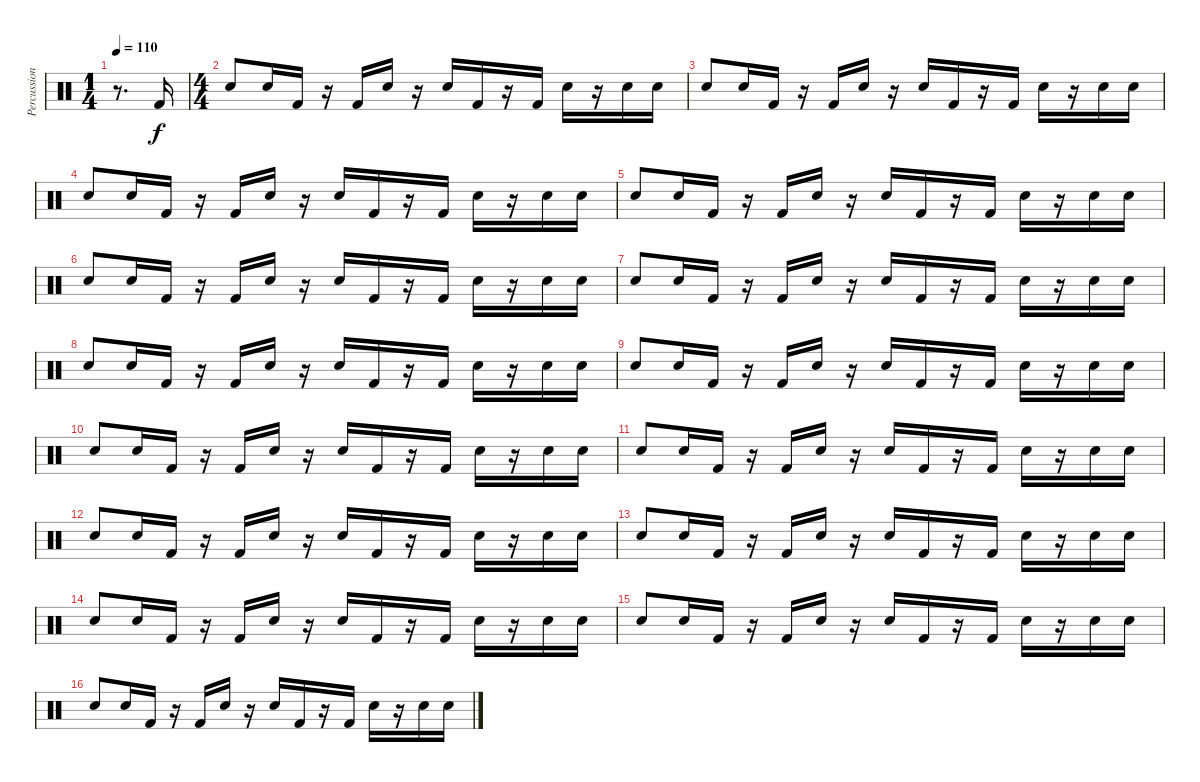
\track ("Percussion" "Percussion") {instrument percussion}
\staff {score}
\articulation defaults
\ts (1 4)
\tempo 110
\clef neutral
\ks c
r.8{d dy f} "Kick (hit) 2".16 |
\ts (4 4)
"Electric Snare (hit)".8 "Electric Snare (hit)".16 "Kick (hit) 2".16 r.16 "Kick (hit) 2".16 "Electric Snare (hit)".16 r.16 "Electric Snare (hit)".16 "Kick (hit) 2".16 r.16 "Kick (hit) 2".16 "Electric Snare (hit)".16 r.16 "Electric Snare (hit)".16 "Electric Snare (hit)".16 |
"Electric Snare (hit)".8 "Electric Snare (hit)".16 "Kick (hit) 2".16 r.16 "Kick (hit) 2".16 "Electric Snare (hit)".16 r.16 "Electric Snare (hit)".16 "Kick (hit) 2".16 r.16 "Kick (hit) 2".16 "Electric Snare (hit)".16 r.16 "Electric Snare (hit)".16 "Electric Snare (hit)".16 |
"Electric Snare (hit)".8 "Electric Snare (hit)".16 "Kick (hit) 2".16 r.16 "Kick (hit) 2".16 "Electric Snare (hit)".16 r.16 "Electric Snare (hit)".16 "Kick (hit) 2".16 r.16 "Kick (hit) 2".16 "Electric Snare (hit)".16 r.16 "Electric Snare (hit)".16 "Electric Snare (hit)".16 |
"Electric Snare (hit)".8 "Electric Snare (hit)".16 "Kick (hit) 2".16 r.16 "Kick (hit) 2".16 "Electric Snare (hit)".16 r.16 "Electric Snare (hit)".16 "Kick (hit) 2".16 r.16 "Kick (hit) 2".16 "Electric Snare (hit)".16 r.16 "Electric Snare (hit)".16 "Electric Snare (hit)".16 |
"Electric Snare (hit)".8 "Electric Snare (hit)".16 "Kick (hit) 2".16 r.16 "Kick (hit) 2".16 "Electric Snare (hit)".16 r.16 "Electric Snare (hit)".16 "Kick (hit) 2".16 r.16 "Kick (hit) 2".16 "Electric Snare (hit)".16 r.16 "Electric Snare (hit)".16 "Electric Snare (hit)".16 |
"Electric Snare (hit)".8 "Electric Snare (hit)".16 "Kick (hit) 2".16 r.16 "Kick (hit) 2".16 "Electric Snare (hit)".16 r.16 "Electric Snare (hit)".16 "Kick (hit) 2".16 r.16 "Kick (hit) 2".16 "Electric Snare (hit)".16 r.16 "Electric Snare (hit)".16 "Electric Snare (hit)".16 |
"Electric Snare (hit)".8 "Electric Snare (hit)".16 "Kick (hit) 2".16 r.16 "Kick (hit) 2".16 "Electric Snare (hit)".16 r.16 "Electric Snare (hit)".16 "Kick (hit) 2".16 r.16 "Kick (hit) 2".16 "Electric Snare (hit)".16 r.16 "Electric Snare (hit)".16 "Electric Snare (hit)".16 |
"Electric Snare (hit)".8 "Electric Snare (hit)".16 "Kick (hit) 2".16 r.16 "Kick (hit) 2".16 "Electric Snare (hit)".16 r.16 "Electric Snare (hit)".16 "Kick (hit) 2".16 r.16 "Kick (hit) 2".16 "Electric Snare (hit)".16 r.16 "Electric Snare (hit)".16 "Electric Snare (hit)".16 |
"Electric Snare (hit)".8 "Electric Snare (hit)".16 "Kick (hit) 2".16 r.16 "Kick (hit) 2".16 "Electric Snare (hit)".16 r.16 "Electric Snare (hit)".16 "Kick (hit) 2".16 r.16 "Kick (hit) 2".16 "Electric Snare (hit)".16 r.16 "Electric Snare (hit)".16 "Electric Snare (hit)".16 |
"Electric Snare (hit)".8 "Electric Snare (hit)".16 "Kick (hit) 2".16 r.16 "Kick (hit) 2".16 "Electric Snare (hit)".16 r.16 "Electric Snare (hit)".16 "Kick (hit) 2".16 r.16 "Kick (hit) 2".16 "Electric Snare (hit)".16 r.16 "Electric Snare (hit)".16 "Electric Snare (hit)".16 |
"Electric Snare (hit)".8 "Electric Snare (hit)".16 "Kick (hit) 2".16 r.16 "Kick (hit) 2".16 "Electric Snare (hit)".16 r.16 "Electric Snare (hit)".16 "Kick (hit) 2".16 r.16 "Kick (hit) 2".16 "Electric Snare (hit)".16 r.16 "Electric Snare (hit)".16 "Electric Snare (hit)".16 |
"Electric Snare (hit)".8 "Electric Snare (hit)".16 "Kick (hit) 2".16 r.16 "Kick (hit) 2".16 "Electric Snare (hit)".16 r.16 "Electric Snare (hit)".16 "Kick (hit) 2".16 r.16 "Kick (hit) 2".16 "Electric Snare (hit)".16 r.16 "Electric Snare (hit)".16 "Electric Snare (hit)".16 |
"Electric Snare (hit)".8 "Electric Snare (hit)".16 "Kick (hit) 2".16 r.16 "Kick (hit) 2".16 "Electric Snare (hit)".16 r.16 "Electric Snare (hit)".16 "Kick (hit) 2".16 r.16 "Kick (hit) 2".16 "Electric Snare (hit)".16 r.16 "Electric Snare (hit)".16 "Electric Snare (hit)".16 |
"Electric Snare (hit)".8 "Electric Snare (hit)".16 "Kick (hit) 2".16 r.16 "Kick (hit) 2".16 "Electric Snare (hit)".16 r.16 "Electric Snare (hit)".16 "Kick (hit) 2".16 r.16 "Kick (hit) 2".16 "Electric Snare (hit)".16 r.16 "Electric Snare (hit)".16 "Electric Snare (hit)".16 |
"Electric Snare (hit)".8 "Electric Snare (hit)".16 "Kick (hit) 2".16 r.16 "Kick (hit) 2".16 "Electric Snare (hit)".16 r.16 "Electric Snare (hit)".16 "Kick (hit) 2".16 r.16 "Kick (hit) 2".16 "Electric Snare (hit)".16 r.16 "Electric Snare (hit)".16 "Electric Snare (hit)".16
